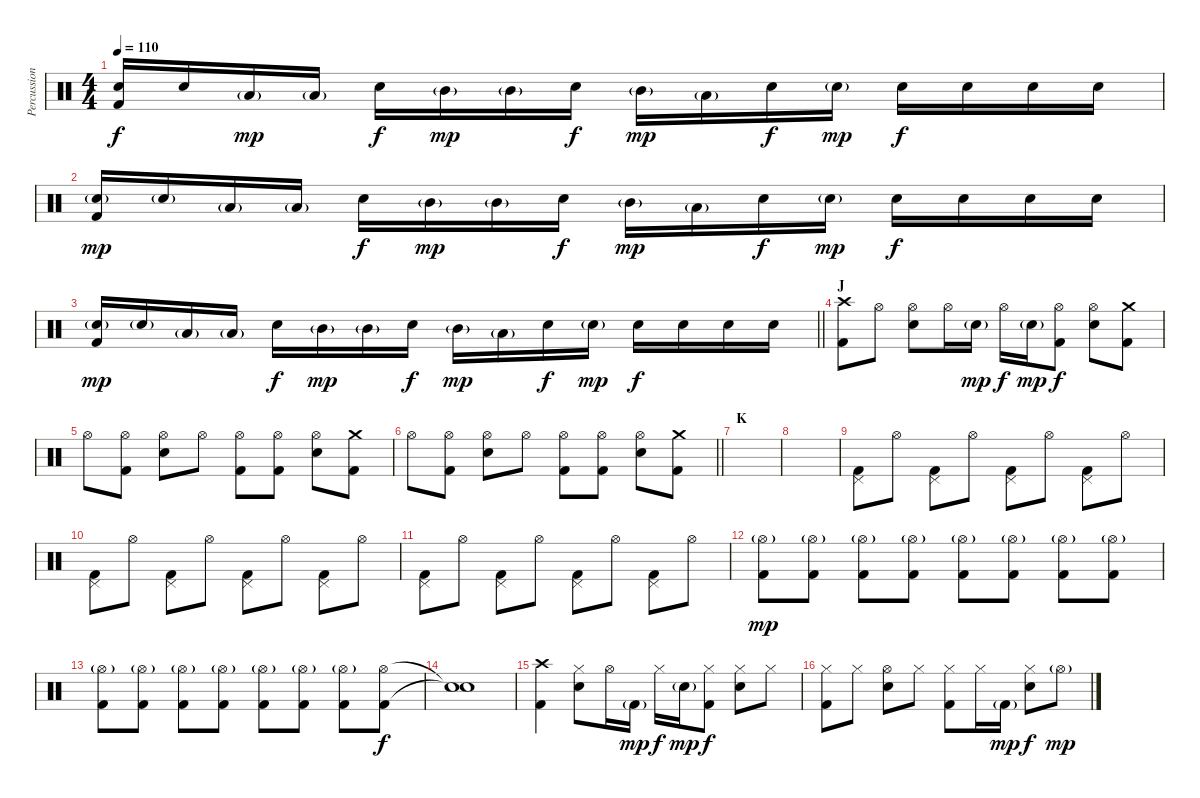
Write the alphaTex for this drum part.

\track ("Percussion" "Percussion") {instrument percussion}
\staff {score}
\articulation defaults
\ts (4 4)
\tempo 110
\clef neutral
\ks c
("Electric Snare (hit)" "Kick (hit) 2").16{dy f} "Electric Snare (hit)".16 "Low Tom (hit)"{g}.16{dy mp} "Low Tom (hit)"{g}.16 "Electric Snare (hit)".16{dy f} "Mid Tom (hit)"{g}.16{dy mp} "Mid Tom (hit)"{g}.16 "Electric Snare (hit)".16{dy f} "Mid Tom (hit)"{g}.16{dy mp} "Low Tom (hit)"{g}.16 "Electric Snare (hit)".16{dy f} "Electric Snare (hit)"{g}.16{dy mp} "Electric Snare (hit)".16{dy f} "Electric Snare (hit)".16 "Electric Snare (hit)".16 "Electric Snare (hit)".16 |
("Electric Snare (hit)"{g} "Kick (hit) 2").16{dy mp} "Electric Snare (hit)"{g}.16 "Low Tom (hit)"{g}.16 "Low Tom (hit)"{g}.16 "Electric Snare (hit)".16{dy f} "Mid Tom (hit)"{g}.16{dy mp} "Mid Tom (hit)"{g}.16 "Electric Snare (hit)".16{dy f} "Mid Tom (hit)"{g}.16{dy mp} "Low Tom (hit)"{g}.16 "Electric Snare (hit)".16{dy f} "Electric Snare (hit)"{g}.16{dy mp} "Electric Snare (hit)".16{dy f} "Electric Snare (hit)".16 "Electric Snare (hit)".16 "Electric Snare (hit)".16 |
\barLineRight lightlight
("Electric Snare (hit)"{g} "Kick (hit) 2").16{dy mp} "Electric Snare (hit)"{g}.16 "Low Tom (hit)"{g}.16 "Low Tom (hit)"{g}.16 "Electric Snare (hit)".16{dy f} "Mid Tom (hit)"{g}.16{dy mp} "Mid Tom (hit)"{g}.16 "Electric Snare (hit)".16{dy f} "Mid Tom (hit)"{g}.16{dy mp} "Low Tom (hit)"{g}.16 "Electric Snare (hit)".16{dy f} "Electric Snare (hit)"{g}.16{dy mp} "Electric Snare (hit)".16{dy f} "Electric Snare (hit)".16 "Electric Snare (hit)".16 "Electric Snare (hit)".16 |
\section ("" "J")
("Crash high (hit)" "Kick (hit) 2").8 "Hi-Hat (open)".8 ("Hi-Hat (open)" "Electric Snare (hit)").8 "Hi-Hat (open)".16 "Electric Snare (hit)"{g}.16{dy mp} "Hi-Hat (open)".16{dy f} "Electric Snare (hit)"{g}.16{dy mp} ("Hi-Hat (open)" "Kick (hit) 2").8{dy f} ("Hi-Hat (open)" "Electric Snare (hit)").8 ("Crash medium (hit)" "Kick (hit) 2").8 |
"Hi-Hat (open)".8 ("Hi-Hat (open)" "Kick (hit) 2").8 ("Hi-Hat (open)" "Electric Snare (hit)").8 "Hi-Hat (open)".8 ("Hi-Hat (open)" "Kick (hit) 2").8 ("Hi-Hat (open)" "Kick (hit) 2").8 ("Hi-Hat (open)" "Electric Snare (hit)").8 ("Crash medium (hit)" "Kick (hit) 2").8 |
\barLineRight lightlight "Hi-Hat (open)".8
("Hi-Hat (open)" "Kick (hit) 2").8 ("Hi-Hat (open)" "Electric Snare (hit)").8 "Hi-Hat (open)".8 ("Hi-Hat (open)" "Kick (hit) 2").8 ("Hi-Hat (open)" "Kick (hit) 2").8 ("Hi-Hat (open)" "Electric Snare (hit)").8 ("Crash medium (hit)" "Kick (hit) 2").8 |
\section ("" "K")
|
|
("Pedal Hi-Hat (hit)" "Kick (hit) 2").8 "Hi-Hat (open)".8 ("Pedal Hi-Hat (hit)" "Kick (hit) 2").8 "Hi-Hat (open)".8 ("Pedal Hi-Hat (hit)" "Kick (hit) 2").8 "Hi-Hat (open)".8 ("Pedal Hi-Hat (hit)" "Kick (hit) 2").8 "Hi-Hat (open)".8 |
("Pedal Hi-Hat (hit)" "Kick (hit) 2").8 "Hi-Hat (open)".8 ("Pedal Hi-Hat (hit)" "Kick (hit) 2").8 "Hi-Hat (open)".8 ("Pedal Hi-Hat (hit)" "Kick (hit) 2").8 "Hi-Hat (open)".8 ("Pedal Hi-Hat (hit)" "Kick (hit) 2").8 "Hi-Hat (open)".8 |
("Pedal Hi-Hat (hit)" "Kick (hit) 2").8 "Hi-Hat (open)".8 ("Pedal Hi-Hat (hit)" "Kick (hit) 2").8 "Hi-Hat (open)".8 ("Pedal Hi-Hat (hit)" "Kick (hit) 2").8 "Hi-Hat (open)".8 ("Pedal Hi-Hat (hit)" "Kick (hit) 2").8 "Hi-Hat (open)".8 |
("Hi-Hat (open)"{g} "Kick (hit) 2").8{dy mp} ("Hi-Hat (open)"{g} "Kick (hit) 2").8 ("Hi-Hat (open)"{g} "Kick (hit) 2").8 ("Hi-Hat (open)"{g} "Kick (hit) 2").8 ("Hi-Hat (open)"{g} "Kick (hit) 2").8 ("Hi-Hat (open)"{g} "Kick (hit) 2").8 ("Hi-Hat (open)"{g} "Kick (hit) 2").8 ("Hi-Hat (open)"{g} "Kick (hit) 2").8 |
("Hi-Hat (open)"{g} "Kick (hit) 2").8 ("Hi-Hat (open)"{g} "Kick (hit) 2").8 ("Hi-Hat (open)"{g} "Kick (hit) 2").8 ("Hi-Hat (open)"{g} "Kick (hit) 2").8 ("Hi-Hat (open)"{g} "Kick (hit) 2").8 ("Hi-Hat (open)"{g} "Kick (hit) 2").8 ("Hi-Hat (open)"{g} "Kick (hit) 2").8 ("Hi-Hat (open)" "Kick (hit) 2").8{dy f} |
("Snare (hit)"{t} "Snare (hit)"{t}).1 |
("Crash high (hit)" "Kick (hit) 2").4 ("Hi-Hat (closed)" "Electric Snare (hit)").8 "Hi-Hat (open)".16 "Kick (hit) 2"{g}.16{dy mp} "Hi-Hat (closed)".16{dy f} "Electric Snare (hit)"{g}.16{dy mp} ("Hi-Hat (closed)" "Kick (hit) 2").8{dy f} ("Hi-Hat (closed)" "Electric Snare (hit)").8 "Hi-Hat (closed)".8 |
("Hi-Hat (closed)" "Kick (hit) 2").8 "Hi-Hat (closed)".8 ("Hi-Hat (open)" "Electric Snare (hit)").8 "Hi-Hat (closed)".8 ("Hi-Hat (closed)" "Kick (hit) 2").8 "Hi-Hat (closed)".16 "Kick (hit) 2"{g}.16{dy mp} ("Hi-Hat (closed)" "Electric Snare (hit)").8{dy f} "Hi-Hat (open)"{g}.8{dy mp}
